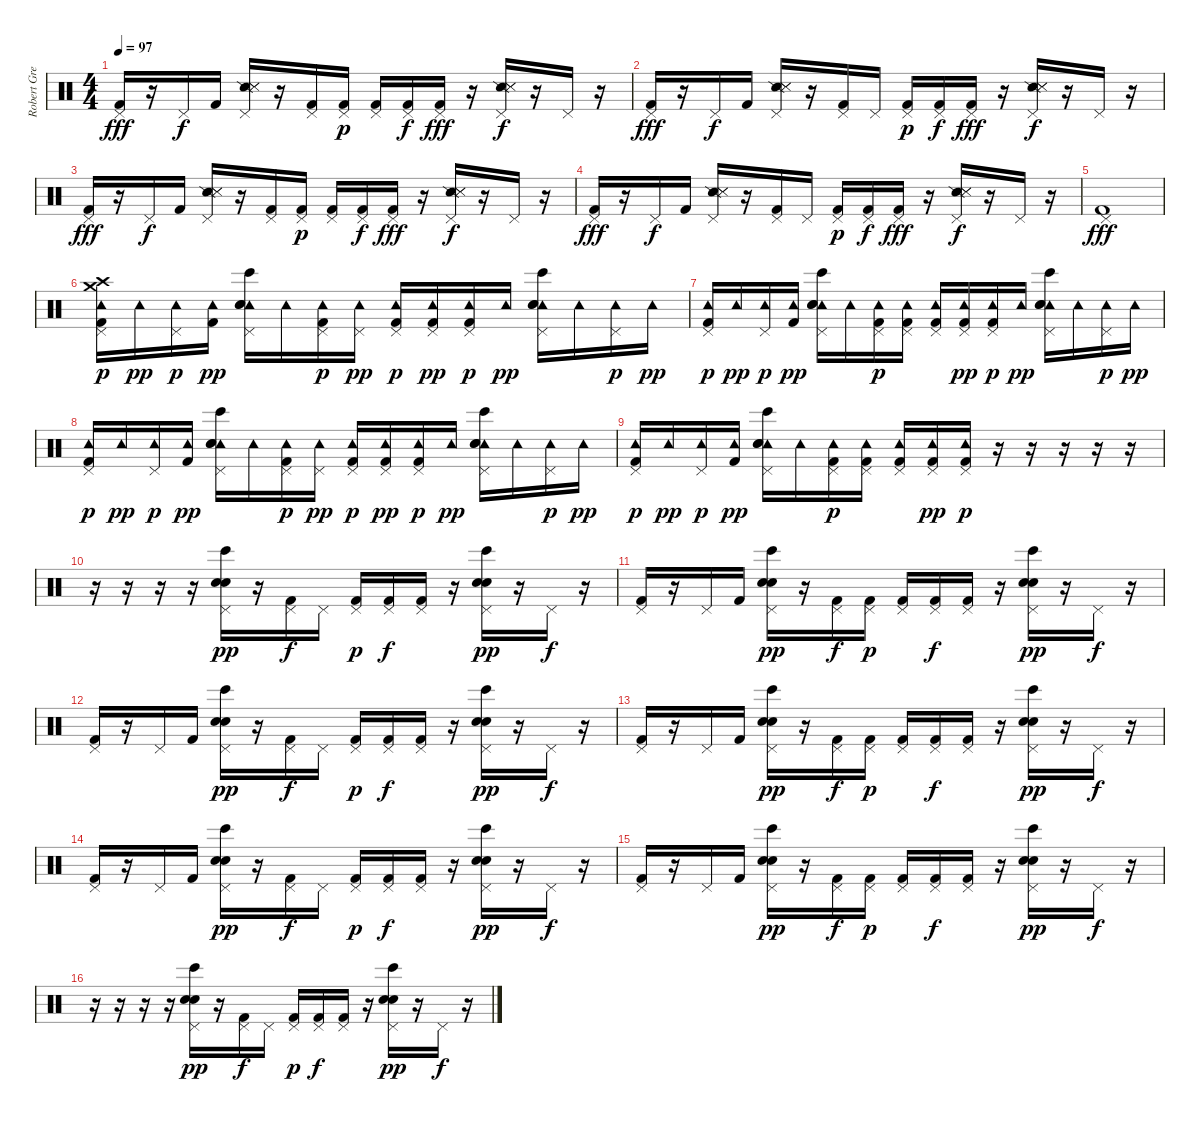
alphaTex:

\track ("Robert Gregory Bourdan/'Groop' sound" "Robert Gre") {instrument percussion}
\staff {score}
\articulation defaults
\ts (4 4)
\tempo 97
\clef neutral
\ks c
("Pedal Hi-Hat (hit)" "Kick (hit) 2").16{dy fff} r.16 "Pedal Hi-Hat (hit)".16{dy f} "Kick (hit) 2".16 ("Pedal Hi-Hat (hit)" "Snare (side stick) 2" "Metronome (hit)" "Snare (side stick) 3").16 r.16 ("Pedal Hi-Hat (hit)" "Kick (hit) 2").16 ("Pedal Hi-Hat (hit)" "Kick (hit) 2").16{dy p} ("Pedal Hi-Hat (hit)" "Kick (hit) 2").16 ("Pedal Hi-Hat (hit)" "Kick (hit) 2").16{dy f} ("Pedal Hi-Hat (hit)" "Kick (hit) 2").16{dy fff} r.16 ("Pedal Hi-Hat (hit)" "Snare (side stick) 2" "Metronome (hit)" "Snare (side stick) 3").16{dy f} r.16 "Pedal Hi-Hat (hit)".16 r.16 |
("Pedal Hi-Hat (hit)" "Kick (hit) 2").16{dy fff} r.16 "Pedal Hi-Hat (hit)".16{dy f} "Kick (hit) 2".16 ("Pedal Hi-Hat (hit)" "Snare (side stick) 2" "Metronome (hit)" "Snare (side stick) 3").16 r.16 ("Pedal Hi-Hat (hit)" "Kick (hit) 2").16 "Pedal Hi-Hat (hit)".16 ("Pedal Hi-Hat (hit)" "Kick (hit) 2").16{dy p} ("Pedal Hi-Hat (hit)" "Kick (hit) 2").16{dy f} ("Pedal Hi-Hat (hit)" "Kick (hit) 2").16{dy fff} r.16 ("Pedal Hi-Hat (hit)" "Snare (side stick) 2" "Metronome (hit)" "Snare (side stick) 3").16{dy f} r.16 "Pedal Hi-Hat (hit)".16 r.16 |
("Pedal Hi-Hat (hit)" "Kick (hit) 2").16{dy fff} r.16 "Pedal Hi-Hat (hit)".16{dy f} "Kick (hit) 2".16 ("Pedal Hi-Hat (hit)" "Snare (side stick) 2" "Metronome (hit)" "Snare (side stick) 3").16 r.16 ("Pedal Hi-Hat (hit)" "Kick (hit) 2").16 ("Pedal Hi-Hat (hit)" "Kick (hit) 2").16{dy p} ("Pedal Hi-Hat (hit)" "Kick (hit) 2").16 ("Pedal Hi-Hat (hit)" "Kick (hit) 2").16{dy f} ("Pedal Hi-Hat (hit)" "Kick (hit) 2").16{dy fff} r.16 ("Pedal Hi-Hat (hit)" "Snare (side stick) 2" "Metronome (hit)" "Snare (side stick) 3").16{dy f} r.16 "Pedal Hi-Hat (hit)".16 r.16 |
("Pedal Hi-Hat (hit)" "Kick (hit) 2").16{dy fff} r.16 "Pedal Hi-Hat (hit)".16{dy f} "Kick (hit) 2".16 ("Pedal Hi-Hat (hit)" "Snare (side stick) 2" "Metronome (hit)" "Snare (side stick) 3").16 r.16 ("Pedal Hi-Hat (hit)" "Kick (hit) 2").16 "Pedal Hi-Hat (hit)".16 ("Pedal Hi-Hat (hit)" "Kick (hit) 2").16{dy p} ("Pedal Hi-Hat (hit)" "Kick (hit) 2").16{dy f} ("Pedal Hi-Hat (hit)" "Kick (hit) 2").16{dy fff} r.16 ("Pedal Hi-Hat (hit)" "Snare (side stick) 2" "Metronome (hit)" "Snare (side stick) 3").16{dy f} r.16 "Pedal Hi-Hat (hit)".16 r.16 |
("Pedal Hi-Hat (hit)" "Kick (hit) 2").1{dy fff} |
("Pedal Hi-Hat (hit)" "Tambourine (hit)" "Crash high (hit)" "Crash medium (hit)" "Kick (hit) 2").16{dy p} "Tambourine (hit)".16{dy pp} ("Pedal Hi-Hat (hit)" "Tambourine (hit)").16{dy p} ("Tambourine (hit)" "Kick (hit) 2").16{dy pp} ("Pedal Hi-Hat (hit)" "Tambourine (hit)" "Electric Snare (hit)" "Snare (hit) 2" "Bongo High (hit)").16 "Tambourine (hit)".16 ("Pedal Hi-Hat (hit)" "Tambourine (hit)" "Kick (hit) 2").16{dy p} ("Pedal Hi-Hat (hit)" "Tambourine (hit)").16{dy pp} ("Pedal Hi-Hat (hit)" "Tambourine (hit)" "Kick (hit) 2").16{dy p} ("Pedal Hi-Hat (hit)" "Tambourine (hit)" "Kick (hit) 2").16{dy pp} ("Pedal Hi-Hat (hit)" "Tambourine (hit)" "Kick (hit) 2").16{dy p} "Tambourine (hit)".16{dy pp} ("Pedal Hi-Hat (hit)" "Tambourine (hit)" "Electric Snare (hit)" "Snare (hit) 2" "Bongo High (hit)").16 "Tambourine (hit)".16 ("Pedal Hi-Hat (hit)" "Tambourine (hit)").16{dy p} "Tambourine (hit)".16{dy pp} |
("Pedal Hi-Hat (hit)" "Tambourine (hit)" "Kick (hit) 2").16{dy p} "Tambourine (hit)".16{dy pp} ("Pedal Hi-Hat (hit)" "Tambourine (hit)").16{dy p} ("Tambourine (hit)" "Kick (hit) 2").16{dy pp} ("Pedal Hi-Hat (hit)" "Tambourine (hit)" "Electric Snare (hit)" "Snare (hit) 2" "Bongo High (hit)").16 "Tambourine (hit)".16 ("Pedal Hi-Hat (hit)" "Tambourine (hit)" "Kick (hit) 2").16{dy p} ("Pedal Hi-Hat (hit)" "Tambourine (hit)" "Kick (hit) 2").16 ("Pedal Hi-Hat (hit)" "Tambourine (hit)" "Kick (hit) 2").16 ("Pedal Hi-Hat (hit)" "Tambourine (hit)" "Kick (hit) 2").16{dy pp} ("Pedal Hi-Hat (hit)" "Tambourine (hit)" "Kick (hit) 2").16{dy p} "Tambourine (hit)".16{dy pp} ("Pedal Hi-Hat (hit)" "Tambourine (hit)" "Electric Snare (hit)" "Snare (hit) 2" "Bongo High (hit)").16 "Tambourine (hit)".16 ("Pedal Hi-Hat (hit)" "Tambourine (hit)").16{dy p} "Tambourine (hit)".16{dy pp} |
("Pedal Hi-Hat (hit)" "Tambourine (hit)" "Kick (hit) 2").16{dy p} "Tambourine (hit)".16{dy pp} ("Pedal Hi-Hat (hit)" "Tambourine (hit)").16{dy p} ("Tambourine (hit)" "Kick (hit) 2").16{dy pp} ("Pedal Hi-Hat (hit)" "Tambourine (hit)" "Electric Snare (hit)" "Snare (hit) 2" "Bongo High (hit)").16 "Tambourine (hit)".16 ("Pedal Hi-Hat (hit)" "Tambourine (hit)" "Kick (hit) 2").16{dy p} ("Pedal Hi-Hat (hit)" "Tambourine (hit)").16{dy pp} ("Pedal Hi-Hat (hit)" "Tambourine (hit)" "Kick (hit) 2").16{dy p} ("Pedal Hi-Hat (hit)" "Tambourine (hit)" "Kick (hit) 2").16{dy pp} ("Pedal Hi-Hat (hit)" "Tambourine (hit)" "Kick (hit) 2").16{dy p} "Tambourine (hit)".16{dy pp} ("Pedal Hi-Hat (hit)" "Tambourine (hit)" "Electric Snare (hit)" "Snare (hit) 2" "Bongo High (hit)").16 "Tambourine (hit)".16 ("Pedal Hi-Hat (hit)" "Tambourine (hit)").16{dy p} "Tambourine (hit)".16{dy pp} |
("Pedal Hi-Hat (hit)" "Tambourine (hit)" "Kick (hit) 2").16{dy p} "Tambourine (hit)".16{dy pp} ("Pedal Hi-Hat (hit)" "Tambourine (hit)").16{dy p} ("Tambourine (hit)" "Kick (hit) 2").16{dy pp} ("Pedal Hi-Hat (hit)" "Tambourine (hit)" "Electric Snare (hit)" "Snare (hit) 2" "Bongo High (hit)").16 "Tambourine (hit)".16 ("Pedal Hi-Hat (hit)" "Tambourine (hit)" "Kick (hit) 2").16{dy p} ("Pedal Hi-Hat (hit)" "Tambourine (hit)" "Kick (hit) 2").16 ("Pedal Hi-Hat (hit)" "Tambourine (hit)" "Kick (hit) 2").16 ("Pedal Hi-Hat (hit)" "Tambourine (hit)" "Kick (hit) 2").16{dy pp} ("Pedal Hi-Hat (hit)" "Tambourine (hit)" "Kick (hit) 2").16{dy p} r.16 r.16 r.16 r.16 r.16 |
r.16 r.16 r.16 r.16 ("Pedal Hi-Hat (hit)" "Electric Snare (hit)" "Snare (hit) 2" "Bongo High (hit)").16{dy pp} r.16 ("Pedal Hi-Hat (hit)" "Kick (hit) 2").16{dy f} "Pedal Hi-Hat (hit)".16 ("Pedal Hi-Hat (hit)" "Kick (hit) 2").16{dy p} ("Pedal Hi-Hat (hit)" "Kick (hit) 2").16{dy f} ("Pedal Hi-Hat (hit)" "Kick (hit) 2").16 r.16 ("Pedal Hi-Hat (hit)" "Electric Snare (hit)" "Snare (hit) 2" "Bongo High (hit)").16{dy pp} r.16 "Pedal Hi-Hat (hit)".16{dy f} r.16 |
("Pedal Hi-Hat (hit)" "Kick (hit) 2").16 r.16 "Pedal Hi-Hat (hit)".16 "Kick (hit) 2".16 ("Pedal Hi-Hat (hit)" "Electric Snare (hit)" "Snare (hit) 2" "Bongo High (hit)").16{dy pp} r.16 ("Pedal Hi-Hat (hit)" "Kick (hit) 2").16{dy f} ("Pedal Hi-Hat (hit)" "Kick (hit) 2").16{dy p} ("Pedal Hi-Hat (hit)" "Kick (hit) 2").16 ("Pedal Hi-Hat (hit)" "Kick (hit) 2").16{dy f} ("Pedal Hi-Hat (hit)" "Kick (hit) 2").16 r.16 ("Pedal Hi-Hat (hit)" "Electric Snare (hit)" "Snare (hit) 2" "Bongo High (hit)").16{dy pp} r.16 "Pedal Hi-Hat (hit)".16{dy f} r.16 |
("Pedal Hi-Hat (hit)" "Kick (hit) 2").16 r.16 "Pedal Hi-Hat (hit)".16 "Kick (hit) 2".16 ("Pedal Hi-Hat (hit)" "Electric Snare (hit)" "Snare (hit) 2" "Bongo High (hit)").16{dy pp} r.16 ("Pedal Hi-Hat (hit)" "Kick (hit) 2").16{dy f} "Pedal Hi-Hat (hit)".16 ("Pedal Hi-Hat (hit)" "Kick (hit) 2").16{dy p} ("Pedal Hi-Hat (hit)" "Kick (hit) 2").16{dy f} ("Pedal Hi-Hat (hit)" "Kick (hit) 2").16 r.16 ("Pedal Hi-Hat (hit)" "Electric Snare (hit)" "Snare (hit) 2" "Bongo High (hit)").16{dy pp} r.16 "Pedal Hi-Hat (hit)".16{dy f} r.16 |
("Pedal Hi-Hat (hit)" "Kick (hit) 2").16 r.16 "Pedal Hi-Hat (hit)".16 "Kick (hit) 2".16 ("Pedal Hi-Hat (hit)" "Electric Snare (hit)" "Snare (hit) 2" "Bongo High (hit)").16{dy pp} r.16 ("Pedal Hi-Hat (hit)" "Kick (hit) 2").16{dy f} ("Pedal Hi-Hat (hit)" "Kick (hit) 2").16{dy p} ("Pedal Hi-Hat (hit)" "Kick (hit) 2").16 ("Pedal Hi-Hat (hit)" "Kick (hit) 2").16{dy f} ("Pedal Hi-Hat (hit)" "Kick (hit) 2").16 r.16 ("Pedal Hi-Hat (hit)" "Electric Snare (hit)" "Snare (hit) 2" "Bongo High (hit)").16{dy pp} r.16 "Pedal Hi-Hat (hit)".16{dy f} r.16 |
("Pedal Hi-Hat (hit)" "Kick (hit) 2").16 r.16 "Pedal Hi-Hat (hit)".16 "Kick (hit) 2".16 ("Pedal Hi-Hat (hit)" "Electric Snare (hit)" "Snare (hit) 2" "Bongo High (hit)").16{dy pp} r.16 ("Pedal Hi-Hat (hit)" "Kick (hit) 2").16{dy f} "Pedal Hi-Hat (hit)".16 ("Pedal Hi-Hat (hit)" "Kick (hit) 2").16{dy p} ("Pedal Hi-Hat (hit)" "Kick (hit) 2").16{dy f} ("Pedal Hi-Hat (hit)" "Kick (hit) 2").16 r.16 ("Pedal Hi-Hat (hit)" "Electric Snare (hit)" "Snare (hit) 2" "Bongo High (hit)").16{dy pp} r.16 "Pedal Hi-Hat (hit)".16{dy f} r.16 |
("Pedal Hi-Hat (hit)" "Kick (hit) 2").16 r.16 "Pedal Hi-Hat (hit)".16 "Kick (hit) 2".16 ("Pedal Hi-Hat (hit)" "Electric Snare (hit)" "Snare (hit) 2" "Bongo High (hit)").16{dy pp} r.16 ("Pedal Hi-Hat (hit)" "Kick (hit) 2").16{dy f} ("Pedal Hi-Hat (hit)" "Kick (hit) 2").16{dy p} ("Pedal Hi-Hat (hit)" "Kick (hit) 2").16 ("Pedal Hi-Hat (hit)" "Kick (hit) 2").16{dy f} ("Pedal Hi-Hat (hit)" "Kick (hit) 2").16 r.16 ("Pedal Hi-Hat (hit)" "Electric Snare (hit)" "Snare (hit) 2" "Bongo High (hit)").16{dy pp} r.16 "Pedal Hi-Hat (hit)".16{dy f} r.16 |
r.16 r.16 r.16 r.16 ("Pedal Hi-Hat (hit)" "Electric Snare (hit)" "Snare (hit) 2" "Bongo High (hit)").16{dy pp} r.16 ("Pedal Hi-Hat (hit)" "Kick (hit) 2").16{dy f} "Pedal Hi-Hat (hit)".16 ("Pedal Hi-Hat (hit)" "Kick (hit) 2").16{dy p} ("Pedal Hi-Hat (hit)" "Kick (hit) 2").16{dy f} ("Pedal Hi-Hat (hit)" "Kick (hit) 2").16 r.16 ("Pedal Hi-Hat (hit)" "Electric Snare (hit)" "Snare (hit) 2" "Bongo High (hit)").16{dy pp} r.16 "Pedal Hi-Hat (hit)".16{dy f} r.16
